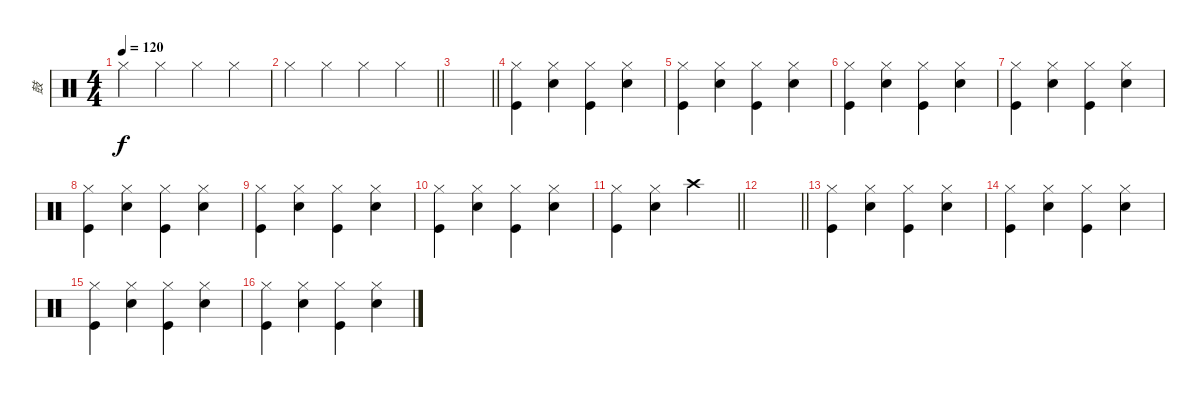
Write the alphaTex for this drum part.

\track ("鼓" "鼓") {instrument percussion}
\staff {score}
\articulation defaults
\ts (4 4)
\tempo 120
\clef neutral
\ks c "Hi-Hat (closed)".4{dy f} "Hi-Hat (closed)".4 "Hi-Hat (closed)".4 "Hi-Hat (closed)".4
|
\barLineRight lightlight "Hi-Hat (closed)".4 "Hi-Hat (closed)".4 "Hi-Hat (closed)".4 "Hi-Hat (closed)".4
|
\barLineRight lightlight
|
("Kick (hit)" "Hi-Hat (closed)").4 ("Hi-Hat (closed)" "Snare (hit) 2").4 ("Kick (hit)" "Hi-Hat (closed)").4 ("Hi-Hat (closed)" "Snare (hit) 2").4 |
("Kick (hit)" "Hi-Hat (closed)").4 ("Hi-Hat (closed)" "Snare (hit) 2").4 ("Kick (hit)" "Hi-Hat (closed)").4 ("Hi-Hat (closed)" "Snare (hit) 2").4 |
("Kick (hit)" "Hi-Hat (closed)").4 ("Hi-Hat (closed)" "Snare (hit) 2").4 ("Kick (hit)" "Hi-Hat (closed)").4 ("Hi-Hat (closed)" "Snare (hit) 2").4 |
("Kick (hit)" "Hi-Hat (closed)").4 ("Hi-Hat (closed)" "Snare (hit) 2").4 ("Kick (hit)" "Hi-Hat (closed)").4 ("Hi-Hat (closed)" "Snare (hit) 2").4 |
("Kick (hit)" "Hi-Hat (closed)").4 ("Hi-Hat (closed)" "Snare (hit) 2").4 ("Kick (hit)" "Hi-Hat (closed)").4 ("Hi-Hat (closed)" "Snare (hit) 2").4 |
("Kick (hit)" "Hi-Hat (closed)").4 ("Hi-Hat (closed)" "Snare (hit) 2").4 ("Kick (hit)" "Hi-Hat (closed)").4 ("Hi-Hat (closed)" "Snare (hit) 2").4 |
("Kick (hit)" "Hi-Hat (closed)").4 ("Hi-Hat (closed)" "Snare (hit) 2").4 ("Kick (hit)" "Hi-Hat (closed)").4 ("Hi-Hat (closed)" "Snare (hit) 2").4 |
\barLineRight lightlight
("Kick (hit)" "Hi-Hat (closed)").4 ("Hi-Hat (closed)" "Snare (hit) 2").4 "Crash high (hit)".2 |
\barLineRight lightlight
|
("Kick (hit)" "Hi-Hat (closed)").4 ("Hi-Hat (closed)" "Snare (hit) 2").4 ("Kick (hit)" "Hi-Hat (closed)").4 ("Hi-Hat (closed)" "Snare (hit) 2").4 |
("Kick (hit)" "Hi-Hat (closed)").4 ("Hi-Hat (closed)" "Snare (hit) 2").4 ("Kick (hit)" "Hi-Hat (closed)").4 ("Hi-Hat (closed)" "Snare (hit) 2").4 |
("Kick (hit)" "Hi-Hat (closed)").4 ("Hi-Hat (closed)" "Snare (hit) 2").4 ("Kick (hit)" "Hi-Hat (closed)").4 ("Hi-Hat (closed)" "Snare (hit) 2").4 |
("Kick (hit)" "Hi-Hat (closed)").4 ("Hi-Hat (closed)" "Snare (hit) 2").4 ("Kick (hit)" "Hi-Hat (closed)").4 ("Hi-Hat (closed)" "Snare (hit) 2").4
